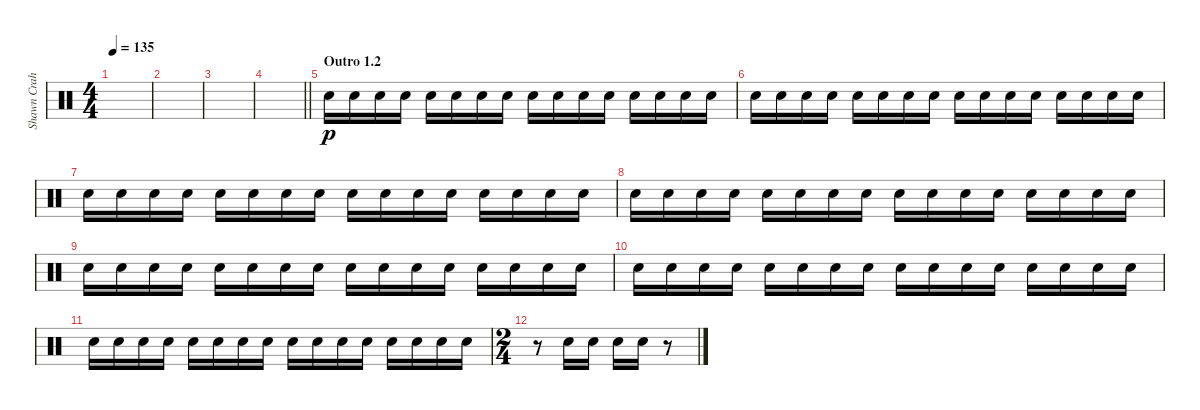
\track ("Shawn Crahan" "Shawn Crah") {instrument percussion}
\staff {score}
\articulation defaults
\ts (4 4)
\tempo 135
\clef neutral
\ks c
|
|
|
\barLineRight lightlight
|
\section ("" "Outro 1.2")
"Snare (hit) 2".16{dy p} "Snare (hit) 2".16 "Snare (hit) 2".16 "Snare (hit) 2".16 "Snare (hit) 2".16 "Snare (hit) 2".16 "Snare (hit) 2".16 "Snare (hit) 2".16 "Snare (hit) 2".16 "Snare (hit) 2".16 "Snare (hit) 2".16 "Snare (hit) 2".16 "Snare (hit) 2".16 "Snare (hit) 2".16 "Snare (hit) 2".16 "Snare (hit) 2".16 |
"Snare (hit) 2".16 "Snare (hit) 2".16 "Snare (hit) 2".16 "Snare (hit) 2".16 "Snare (hit) 2".16 "Snare (hit) 2".16 "Snare (hit) 2".16 "Snare (hit) 2".16 "Snare (hit) 2".16 "Snare (hit) 2".16 "Snare (hit) 2".16 "Snare (hit) 2".16 "Snare (hit) 2".16 "Snare (hit) 2".16 "Snare (hit) 2".16 "Snare (hit) 2".16 |
"Snare (hit) 2".16 "Snare (hit) 2".16 "Snare (hit) 2".16 "Snare (hit) 2".16 "Snare (hit) 2".16 "Snare (hit) 2".16 "Snare (hit) 2".16 "Snare (hit) 2".16 "Snare (hit) 2".16 "Snare (hit) 2".16 "Snare (hit) 2".16 "Snare (hit) 2".16 "Snare (hit) 2".16 "Snare (hit) 2".16 "Snare (hit) 2".16 "Snare (hit) 2".16 |
"Snare (hit) 2".16 "Snare (hit) 2".16 "Snare (hit) 2".16 "Snare (hit) 2".16 "Snare (hit) 2".16 "Snare (hit) 2".16 "Snare (hit) 2".16 "Snare (hit) 2".16 "Snare (hit) 2".16 "Snare (hit) 2".16 "Snare (hit) 2".16 "Snare (hit) 2".16 "Snare (hit) 2".16 "Snare (hit) 2".16 "Snare (hit) 2".16 "Snare (hit) 2".16 |
"Snare (hit) 2".16 "Snare (hit) 2".16 "Snare (hit) 2".16 "Snare (hit) 2".16 "Snare (hit) 2".16 "Snare (hit) 2".16 "Snare (hit) 2".16 "Snare (hit) 2".16 "Snare (hit) 2".16 "Snare (hit) 2".16 "Snare (hit) 2".16 "Snare (hit) 2".16 "Snare (hit) 2".16 "Snare (hit) 2".16 "Snare (hit) 2".16 "Snare (hit) 2".16 |
"Snare (hit) 2".16 "Snare (hit) 2".16 "Snare (hit) 2".16 "Snare (hit) 2".16 "Snare (hit) 2".16 "Snare (hit) 2".16 "Snare (hit) 2".16 "Snare (hit) 2".16 "Snare (hit) 2".16 "Snare (hit) 2".16 "Snare (hit) 2".16 "Snare (hit) 2".16 "Snare (hit) 2".16 "Snare (hit) 2".16 "Snare (hit) 2".16 "Snare (hit) 2".16 |
"Snare (hit) 2".16 "Snare (hit) 2".16 "Snare (hit) 2".16 "Snare (hit) 2".16 "Snare (hit) 2".16 "Snare (hit) 2".16 "Snare (hit) 2".16 "Snare (hit) 2".16 "Snare (hit) 2".16 "Snare (hit) 2".16 "Snare (hit) 2".16 "Snare (hit) 2".16 "Snare (hit) 2".16 "Snare (hit) 2".16 "Snare (hit) 2".16 "Snare (hit) 2".16 |
\ts (2 4)
r.8 "Snare (hit) 2".16 "Snare (hit) 2".16 "Snare (hit) 2".16 "Snare (hit) 2".16 r.8
